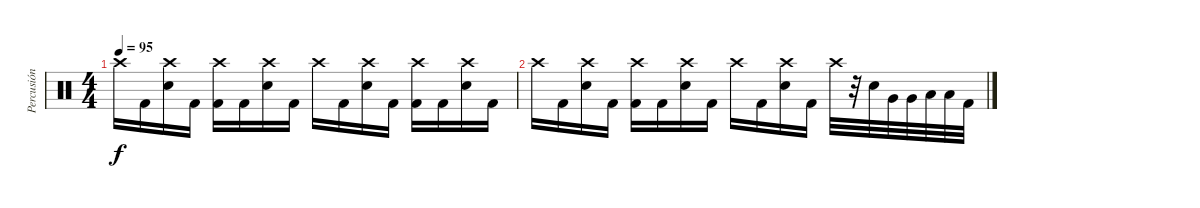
\track ("Percusión" "Percusión") {instrument percussion}
\staff {score}
\articulation defaults
\ts (4 4)
\tempo 95
\clef neutral
\ks c "Crash high (hit)".16{dy f} "Kick (hit) 2".16
("Crash high (hit)" "Electric Snare (hit)").16 "Kick (hit) 2".16 ("Crash high (hit)" "Kick (hit) 2").16 "Kick (hit) 2".16 ("Crash high (hit)" "Electric Snare (hit)").16 "Kick (hit) 2".16 "Crash high (hit)".16 "Kick (hit) 2".16 ("Crash high (hit)" "Electric Snare (hit)").16 "Kick (hit) 2".16 ("Crash high (hit)" "Kick (hit) 2").16 "Kick (hit) 2".16 ("Crash high (hit)" "Electric Snare (hit)").16 "Kick (hit) 2".16 |
"Crash high (hit)".16 "Kick (hit) 2".16 ("Crash high (hit)" "Electric Snare (hit)").16 "Kick (hit) 2".16 ("Crash high (hit)" "Kick (hit) 2").16 "Kick (hit) 2".16 ("Crash high (hit)" "Electric Snare (hit)").16 "Kick (hit) 2".16 "Crash high (hit)".16 "Kick (hit) 2".16 ("Crash high (hit)" "Electric Snare (hit)").16 "Kick (hit) 2".16 "Crash high (hit)".32 r.32 "Electric Snare (hit)".32 "Very Low Tom (hit)".32 "Very Low Tom (hit)".32 "Low Floor Tom (hit)".32 "Low Floor Tom (hit)".32 "Kick (hit) 2".32
